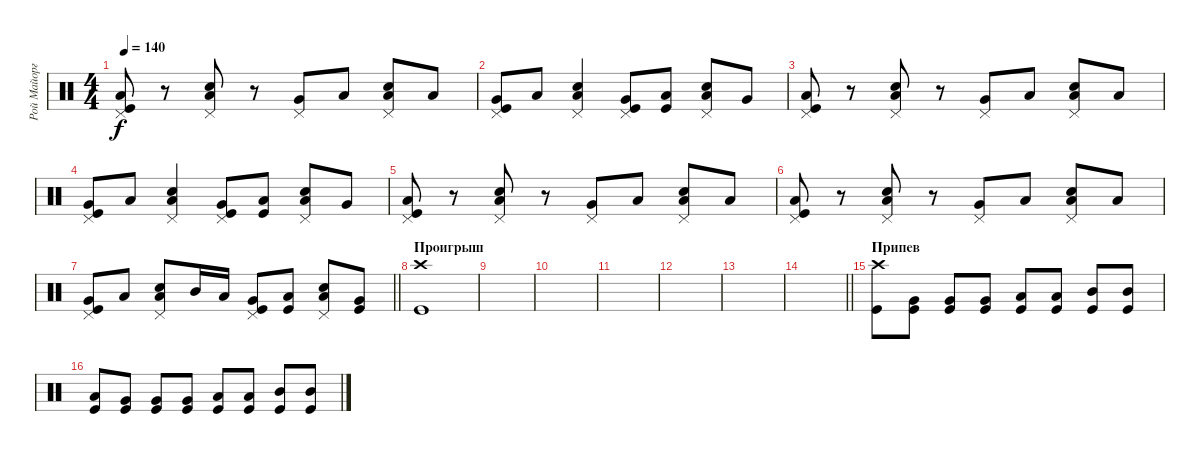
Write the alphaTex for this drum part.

\track ("Рой Майорга" "Рой Майорг") {instrument percussion}
\staff {score}
\articulation defaults
\ts (4 4)
\tempo 140
\clef neutral
\ks c
("Pedal Hi-Hat (hit)" "Low Tom (hit)" "Kick (hit)").8{dy f} r.8 ("Pedal Hi-Hat (hit)" "Low Tom (hit)" "Snare (hit) 2").8 r.8 ("Pedal Hi-Hat (hit)" "Very Low Tom (hit)").8 "Low Tom (hit)".8 ("Pedal Hi-Hat (hit)" "Low Tom (hit)" "Snare (hit) 2").8 "Low Floor Tom (hit)".8 |
("Pedal Hi-Hat (hit)" "Very Low Tom (hit)" "Kick (hit)").8 "Low Tom (hit)".8 ("Pedal Hi-Hat (hit)" "Low Tom (hit)" "Snare (hit) 2").4 ("Pedal Hi-Hat (hit)" "Very Low Tom (hit)" "Kick (hit)").8 ("Low Tom (hit)" "Kick (hit)").8 ("Pedal Hi-Hat (hit)" "Low Tom (hit)" "Snare (hit) 2").8 "Very Low Tom (hit)".8 |
("Pedal Hi-Hat (hit)" "Low Tom (hit)" "Kick (hit)").8 r.8 ("Pedal Hi-Hat (hit)" "Low Tom (hit)" "Snare (hit) 2").8 r.8 ("Pedal Hi-Hat (hit)" "Very Low Tom (hit)").8 "Low Tom (hit)".8 ("Pedal Hi-Hat (hit)" "Low Tom (hit)" "Snare (hit) 2").8 "Low Floor Tom (hit)".8 |
("Pedal Hi-Hat (hit)" "Very Low Tom (hit)" "Kick (hit)").8 "Low Tom (hit)".8 ("Pedal Hi-Hat (hit)" "Low Tom (hit)" "Snare (hit) 2").4 ("Pedal Hi-Hat (hit)" "Very Low Tom (hit)" "Kick (hit)").8 ("Low Tom (hit)" "Kick (hit)").8 ("Pedal Hi-Hat (hit)" "Low Tom (hit)" "Snare (hit) 2").8 "Very Low Tom (hit)".8 |
("Pedal Hi-Hat (hit)" "Low Tom (hit)" "Kick (hit)").8 r.8 ("Pedal Hi-Hat (hit)" "Low Tom (hit)" "Snare (hit) 2").8 r.8 ("Pedal Hi-Hat (hit)" "Very Low Tom (hit)").8 "Low Tom (hit)".8 ("Pedal Hi-Hat (hit)" "Low Tom (hit)" "Snare (hit) 2").8 "Low Floor Tom (hit)".8 |
("Pedal Hi-Hat (hit)" "Low Tom (hit)" "Kick (hit)").8 r.8 ("Pedal Hi-Hat (hit)" "Low Tom (hit)" "Snare (hit) 2").8 r.8 ("Pedal Hi-Hat (hit)" "Very Low Tom (hit)").8 "Low Tom (hit)".8 ("Pedal Hi-Hat (hit)" "Low Tom (hit)" "Snare (hit) 2").8 "Low Floor Tom (hit)".8 |
\barLineRight lightlight
("Pedal Hi-Hat (hit)" "Very Low Tom (hit)" "Kick (hit)").8 "Low Tom (hit)".8 ("Pedal Hi-Hat (hit)" "Low Tom (hit)" "Snare (hit) 2").8 "Mid Tom (hit)".16 "Low Tom (hit)".16 ("Pedal Hi-Hat (hit)" "Very Low Tom (hit)" "Kick (hit)").8 ("Low Tom (hit)" "Kick (hit)").8 ("Pedal Hi-Hat (hit)" "Low Tom (hit)" "Snare (hit) 2").8 ("Very Low Tom (hit)" "Kick (hit)").8 |
\section ("" "Проигрыш")
("Crash high (hit)" "Kick (hit)").1 |
|
|
|
|
|
\barLineRight lightlight
|
\section ("" "Припев")
("Crash high (hit)" "Kick (hit)").8 ("Very Low Tom (hit)" "Kick (hit)").8 ("Very Low Tom (hit)" "Kick (hit)").8 ("Very Low Tom (hit)" "Kick (hit)").8 ("Low Tom (hit)" "Kick (hit)").8 ("Low Tom (hit)" "Kick (hit)").8 ("Mid Tom (hit)" "Kick (hit)").8 ("Mid Tom (hit)" "Kick (hit)").8 |
("Low Tom (hit)" "Kick (hit)").8 ("Very Low Tom (hit)" "Kick (hit)").8 ("Very Low Tom (hit)" "Kick (hit)").8 ("Very Low Tom (hit)" "Kick (hit)").8 ("Low Tom (hit)" "Kick (hit)").8 ("Low Tom (hit)" "Kick (hit)").8 ("Mid Tom (hit)" "Kick (hit)").8 ("Mid Tom (hit)" "Kick (hit)").8
